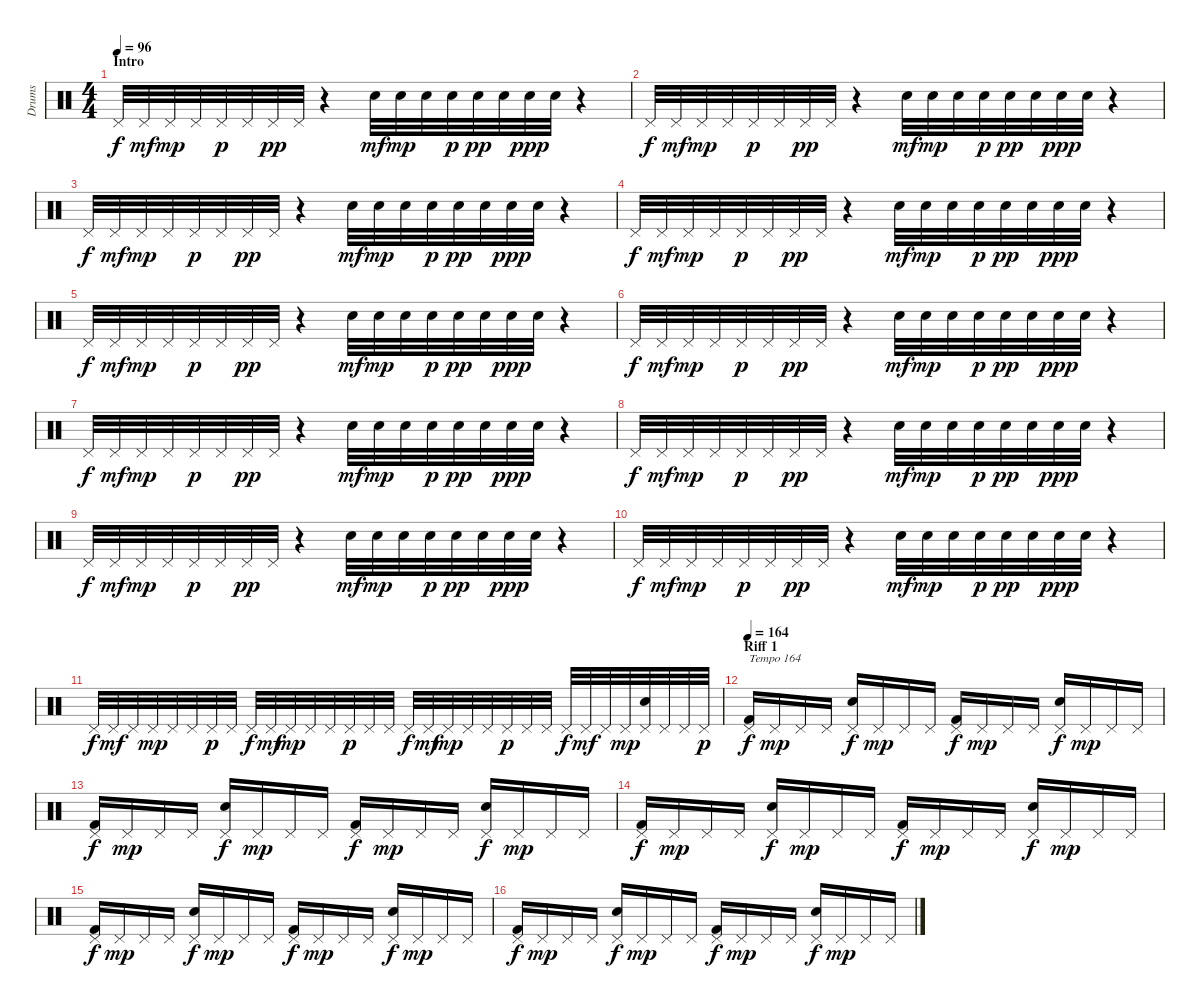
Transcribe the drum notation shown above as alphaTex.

\track ("Drums" "Drums") {instrument percussion}
\staff {score}
\articulation defaults
\ts (4 4)
\section ("" "Intro")
\tempo 96
\clef neutral
\ks c "Pedal Hi-Hat (hit)".32{dy f} "Pedal Hi-Hat (hit)".32{dy mf} "Pedal Hi-Hat (hit)".32{dy mp} "Pedal Hi-Hat (hit)".32 "Pedal Hi-Hat (hit)".32{dy p} "Pedal Hi-Hat (hit)".32 "Pedal Hi-Hat (hit)".32{dy pp} "Pedal Hi-Hat (hit)".32
r.4 "Snare (hit) 2".32{dy mf} "Snare (hit) 2".32{dy mp} "Snare (hit) 2".32 "Snare (hit) 2".32{dy p} "Snare (hit) 2".32{dy pp} "Snare (hit) 2".32 "Snare (hit) 2".32{dy ppp} "Snare (hit) 2".32 r.4 |
"Pedal Hi-Hat (hit)".32{dy f} "Pedal Hi-Hat (hit)".32{dy mf} "Pedal Hi-Hat (hit)".32{dy mp} "Pedal Hi-Hat (hit)".32 "Pedal Hi-Hat (hit)".32{dy p} "Pedal Hi-Hat (hit)".32 "Pedal Hi-Hat (hit)".32{dy pp} "Pedal Hi-Hat (hit)".32 r.4 "Snare (hit) 2".32{dy mf} "Snare (hit) 2".32{dy mp} "Snare (hit) 2".32 "Snare (hit) 2".32{dy p} "Snare (hit) 2".32{dy pp} "Snare (hit) 2".32 "Snare (hit) 2".32{dy ppp} "Snare (hit) 2".32 r.4 |
"Pedal Hi-Hat (hit)".32{dy f} "Pedal Hi-Hat (hit)".32{dy mf} "Pedal Hi-Hat (hit)".32{dy mp} "Pedal Hi-Hat (hit)".32 "Pedal Hi-Hat (hit)".32{dy p} "Pedal Hi-Hat (hit)".32 "Pedal Hi-Hat (hit)".32{dy pp} "Pedal Hi-Hat (hit)".32 r.4 "Snare (hit) 2".32{dy mf} "Snare (hit) 2".32{dy mp} "Snare (hit) 2".32 "Snare (hit) 2".32{dy p} "Snare (hit) 2".32{dy pp} "Snare (hit) 2".32 "Snare (hit) 2".32{dy ppp} "Snare (hit) 2".32 r.4 |
"Pedal Hi-Hat (hit)".32{dy f} "Pedal Hi-Hat (hit)".32{dy mf} "Pedal Hi-Hat (hit)".32{dy mp} "Pedal Hi-Hat (hit)".32 "Pedal Hi-Hat (hit)".32{dy p} "Pedal Hi-Hat (hit)".32 "Pedal Hi-Hat (hit)".32{dy pp} "Pedal Hi-Hat (hit)".32 r.4 "Snare (hit) 2".32{dy mf} "Snare (hit) 2".32{dy mp} "Snare (hit) 2".32 "Snare (hit) 2".32{dy p} "Snare (hit) 2".32{dy pp} "Snare (hit) 2".32 "Snare (hit) 2".32{dy ppp} "Snare (hit) 2".32 r.4 |
"Pedal Hi-Hat (hit)".32{dy f} "Pedal Hi-Hat (hit)".32{dy mf} "Pedal Hi-Hat (hit)".32{dy mp} "Pedal Hi-Hat (hit)".32 "Pedal Hi-Hat (hit)".32{dy p} "Pedal Hi-Hat (hit)".32 "Pedal Hi-Hat (hit)".32{dy pp} "Pedal Hi-Hat (hit)".32 r.4 "Snare (hit) 2".32{dy mf} "Snare (hit) 2".32{dy mp} "Snare (hit) 2".32 "Snare (hit) 2".32{dy p} "Snare (hit) 2".32{dy pp} "Snare (hit) 2".32 "Snare (hit) 2".32{dy ppp} "Snare (hit) 2".32 r.4 |
"Pedal Hi-Hat (hit)".32{dy f} "Pedal Hi-Hat (hit)".32{dy mf} "Pedal Hi-Hat (hit)".32{dy mp} "Pedal Hi-Hat (hit)".32 "Pedal Hi-Hat (hit)".32{dy p} "Pedal Hi-Hat (hit)".32 "Pedal Hi-Hat (hit)".32{dy pp} "Pedal Hi-Hat (hit)".32 r.4 "Snare (hit) 2".32{dy mf} "Snare (hit) 2".32{dy mp} "Snare (hit) 2".32 "Snare (hit) 2".32{dy p} "Snare (hit) 2".32{dy pp} "Snare (hit) 2".32 "Snare (hit) 2".32{dy ppp} "Snare (hit) 2".32 r.4 |
"Pedal Hi-Hat (hit)".32{dy f} "Pedal Hi-Hat (hit)".32{dy mf} "Pedal Hi-Hat (hit)".32{dy mp} "Pedal Hi-Hat (hit)".32 "Pedal Hi-Hat (hit)".32{dy p} "Pedal Hi-Hat (hit)".32 "Pedal Hi-Hat (hit)".32{dy pp} "Pedal Hi-Hat (hit)".32 r.4 "Snare (hit) 2".32{dy mf} "Snare (hit) 2".32{dy mp} "Snare (hit) 2".32 "Snare (hit) 2".32{dy p} "Snare (hit) 2".32{dy pp} "Snare (hit) 2".32 "Snare (hit) 2".32{dy ppp} "Snare (hit) 2".32 r.4 |
"Pedal Hi-Hat (hit)".32{dy f} "Pedal Hi-Hat (hit)".32{dy mf} "Pedal Hi-Hat (hit)".32{dy mp} "Pedal Hi-Hat (hit)".32 "Pedal Hi-Hat (hit)".32{dy p} "Pedal Hi-Hat (hit)".32 "Pedal Hi-Hat (hit)".32{dy pp} "Pedal Hi-Hat (hit)".32 r.4 "Snare (hit) 2".32{dy mf} "Snare (hit) 2".32{dy mp} "Snare (hit) 2".32 "Snare (hit) 2".32{dy p} "Snare (hit) 2".32{dy pp} "Snare (hit) 2".32 "Snare (hit) 2".32{dy ppp} "Snare (hit) 2".32 r.4 |
"Pedal Hi-Hat (hit)".32{dy f} "Pedal Hi-Hat (hit)".32{dy mf} "Pedal Hi-Hat (hit)".32{dy mp} "Pedal Hi-Hat (hit)".32 "Pedal Hi-Hat (hit)".32{dy p} "Pedal Hi-Hat (hit)".32 "Pedal Hi-Hat (hit)".32{dy pp} "Pedal Hi-Hat (hit)".32 r.4 "Snare (hit) 2".32{dy mf} "Snare (hit) 2".32{dy mp} "Snare (hit) 2".32 "Snare (hit) 2".32{dy p} "Snare (hit) 2".32{dy pp} "Snare (hit) 2".32 "Snare (hit) 2".32{dy ppp} "Snare (hit) 2".32 r.4 |
"Pedal Hi-Hat (hit)".32{dy f} "Pedal Hi-Hat (hit)".32{dy mf} "Pedal Hi-Hat (hit)".32{dy mp} "Pedal Hi-Hat (hit)".32 "Pedal Hi-Hat (hit)".32{dy p} "Pedal Hi-Hat (hit)".32 "Pedal Hi-Hat (hit)".32{dy pp} "Pedal Hi-Hat (hit)".32 r.4 "Snare (hit) 2".32{dy mf} "Snare (hit) 2".32{dy mp} "Snare (hit) 2".32 "Snare (hit) 2".32{dy p} "Snare (hit) 2".32{dy pp} "Snare (hit) 2".32 "Snare (hit) 2".32{dy ppp} "Snare (hit) 2".32 r.4 |
"Pedal Hi-Hat (hit)".32{dy f} "Pedal Hi-Hat (hit)".32{dy mf} "Pedal Hi-Hat (hit)".32 "Pedal Hi-Hat (hit)".32{dy mp} "Pedal Hi-Hat (hit)".32 "Pedal Hi-Hat (hit)".32 "Pedal Hi-Hat (hit)".32{dy p} "Pedal Hi-Hat (hit)".32 "Pedal Hi-Hat (hit)".32{dy f} "Pedal Hi-Hat (hit)".32{dy mf} "Pedal Hi-Hat (hit)".32{dy mp} "Pedal Hi-Hat (hit)".32 "Pedal Hi-Hat (hit)".32 "Pedal Hi-Hat (hit)".32{dy p} "Pedal Hi-Hat (hit)".32 "Pedal Hi-Hat (hit)".32 "Pedal Hi-Hat (hit)".32{dy f} "Pedal Hi-Hat (hit)".32{dy mf} "Pedal Hi-Hat (hit)".32{dy mp} "Pedal Hi-Hat (hit)".32 "Pedal Hi-Hat (hit)".32 "Pedal Hi-Hat (hit)".32{dy p} "Pedal Hi-Hat (hit)".32 "Pedal Hi-Hat (hit)".32 "Pedal Hi-Hat (hit)".32{dy f} "Pedal Hi-Hat (hit)".32{dy mf} "Pedal Hi-Hat (hit)".32 "Pedal Hi-Hat (hit)".32{dy mp} ("Pedal Hi-Hat (hit)" "Electric Snare (hit)").32 "Pedal Hi-Hat (hit)".32 "Pedal Hi-Hat (hit)".32 "Pedal Hi-Hat (hit)".32{dy p} |
\section ("" "Riff 1")
\tempo 164
("Pedal Hi-Hat (hit)" "Kick (hit) 2").16{txt "Tempo 164" dy f} "Pedal Hi-Hat (hit)".16{dy mp} "Pedal Hi-Hat (hit)".16 "Pedal Hi-Hat (hit)".16 ("Pedal Hi-Hat (hit)" "Snare (hit) 2").16{dy f} "Pedal Hi-Hat (hit)".16{dy mp} "Pedal Hi-Hat (hit)".16 "Pedal Hi-Hat (hit)".16 ("Pedal Hi-Hat (hit)" "Kick (hit) 2").16{dy f} "Pedal Hi-Hat (hit)".16{dy mp} "Pedal Hi-Hat (hit)".16 "Pedal Hi-Hat (hit)".16 ("Pedal Hi-Hat (hit)" "Snare (hit) 2").16{dy f} "Pedal Hi-Hat (hit)".16{dy mp} "Pedal Hi-Hat (hit)".16 "Pedal Hi-Hat (hit)".16 |
("Pedal Hi-Hat (hit)" "Kick (hit) 2").16{dy f} "Pedal Hi-Hat (hit)".16{dy mp} "Pedal Hi-Hat (hit)".16 "Pedal Hi-Hat (hit)".16 ("Pedal Hi-Hat (hit)" "Snare (hit) 2").16{dy f} "Pedal Hi-Hat (hit)".16{dy mp} "Pedal Hi-Hat (hit)".16 "Pedal Hi-Hat (hit)".16 ("Pedal Hi-Hat (hit)" "Kick (hit) 2").16{dy f} "Pedal Hi-Hat (hit)".16{dy mp} "Pedal Hi-Hat (hit)".16 "Pedal Hi-Hat (hit)".16 ("Pedal Hi-Hat (hit)" "Snare (hit) 2").16{dy f} "Pedal Hi-Hat (hit)".16{dy mp} "Pedal Hi-Hat (hit)".16 "Pedal Hi-Hat (hit)".16 |
("Pedal Hi-Hat (hit)" "Kick (hit) 2").16{dy f} "Pedal Hi-Hat (hit)".16{dy mp} "Pedal Hi-Hat (hit)".16 "Pedal Hi-Hat (hit)".16 ("Pedal Hi-Hat (hit)" "Snare (hit) 2").16{dy f} "Pedal Hi-Hat (hit)".16{dy mp} "Pedal Hi-Hat (hit)".16 "Pedal Hi-Hat (hit)".16 ("Pedal Hi-Hat (hit)" "Kick (hit) 2").16{dy f} "Pedal Hi-Hat (hit)".16{dy mp} "Pedal Hi-Hat (hit)".16 "Pedal Hi-Hat (hit)".16 ("Pedal Hi-Hat (hit)" "Snare (hit) 2").16{dy f} "Pedal Hi-Hat (hit)".16{dy mp} "Pedal Hi-Hat (hit)".16 "Pedal Hi-Hat (hit)".16 |
("Pedal Hi-Hat (hit)" "Kick (hit) 2").16{dy f} "Pedal Hi-Hat (hit)".16{dy mp} "Pedal Hi-Hat (hit)".16 "Pedal Hi-Hat (hit)".16 ("Pedal Hi-Hat (hit)" "Snare (hit) 2").16{dy f} "Pedal Hi-Hat (hit)".16{dy mp} "Pedal Hi-Hat (hit)".16 "Pedal Hi-Hat (hit)".16 ("Pedal Hi-Hat (hit)" "Kick (hit) 2").16{dy f} "Pedal Hi-Hat (hit)".16{dy mp} "Pedal Hi-Hat (hit)".16 "Pedal Hi-Hat (hit)".16 ("Pedal Hi-Hat (hit)" "Snare (hit) 2").16{dy f} "Pedal Hi-Hat (hit)".16{dy mp} "Pedal Hi-Hat (hit)".16 "Pedal Hi-Hat (hit)".16 |
("Pedal Hi-Hat (hit)" "Kick (hit) 2").16{dy f} "Pedal Hi-Hat (hit)".16{dy mp} "Pedal Hi-Hat (hit)".16 "Pedal Hi-Hat (hit)".16 ("Pedal Hi-Hat (hit)" "Snare (hit) 2").16{dy f} "Pedal Hi-Hat (hit)".16{dy mp} "Pedal Hi-Hat (hit)".16 "Pedal Hi-Hat (hit)".16 ("Pedal Hi-Hat (hit)" "Kick (hit) 2").16{dy f} "Pedal Hi-Hat (hit)".16{dy mp} "Pedal Hi-Hat (hit)".16 "Pedal Hi-Hat (hit)".16 ("Pedal Hi-Hat (hit)" "Snare (hit) 2").16{dy f} "Pedal Hi-Hat (hit)".16{dy mp} "Pedal Hi-Hat (hit)".16 "Pedal Hi-Hat (hit)".16
